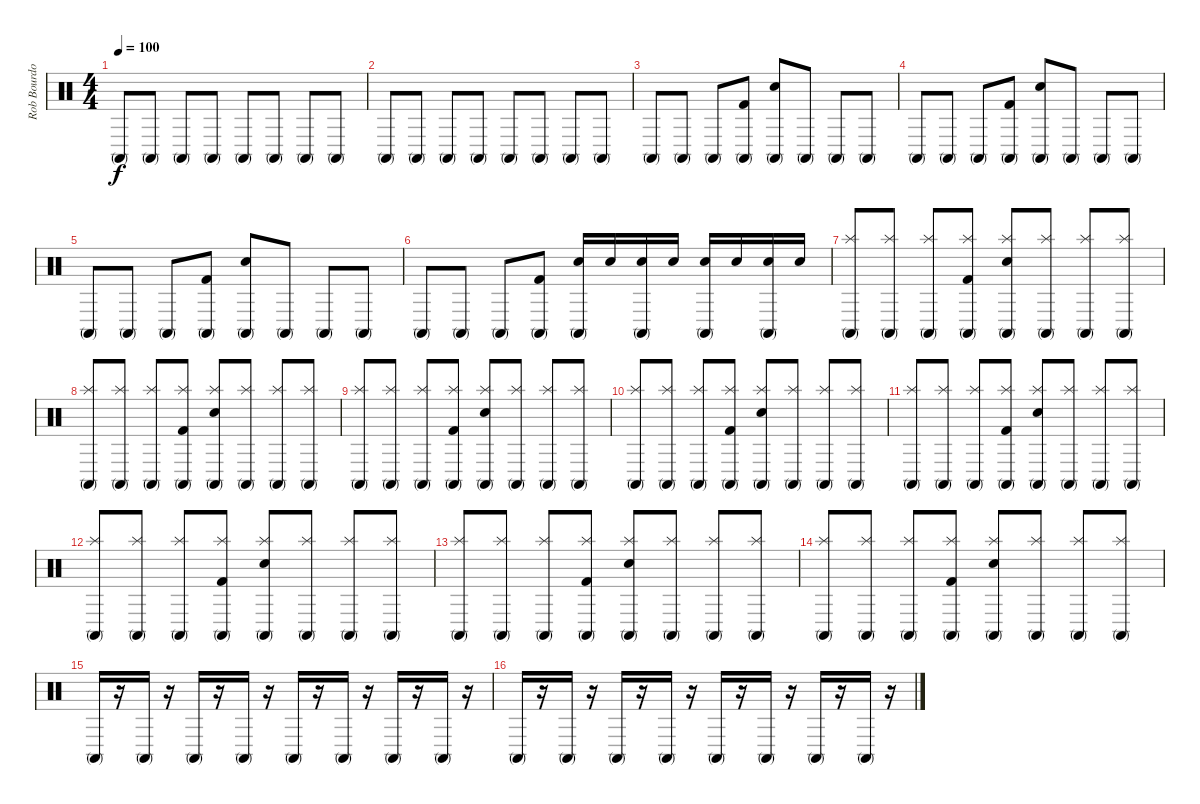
\track ("Rob Bourdon" "Rob Bourdo") {instrument percussion}
\staff {score}
\articulation defaults
\ts (4 4)
\tempo 100
\clef neutral
\ks c "Conga high (mute)".8{dy f} "Conga high (mute)".8 "Conga high (mute)".8 "Conga high (mute)".8 "Conga high (mute)".8 "Conga high (mute)".8 "Conga high (mute)".8 "Conga high (mute)".8
|
"Conga high (mute)".8 "Conga high (mute)".8 "Conga high (mute)".8 "Conga high (mute)".8 "Conga high (mute)".8 "Conga high (mute)".8 "Conga high (mute)".8 "Conga high (mute)".8 |
"Conga high (mute)".8 "Conga high (mute)".8 "Conga high (mute)".8 ("Conga high (mute)" "Kick (hit) 2").8 ("Conga high (mute)" "Electric Snare (hit)").8 "Conga high (mute)".8 "Conga high (mute)".8 "Conga high (mute)".8 |
"Conga high (mute)".8 "Conga high (mute)".8 "Conga high (mute)".8 ("Conga high (mute)" "Kick (hit) 2").8 ("Conga high (mute)" "Electric Snare (hit)").8 "Conga high (mute)".8 "Conga high (mute)".8 "Conga high (mute)".8 |
"Conga high (mute)".8 "Conga high (mute)".8 "Conga high (mute)".8 ("Conga high (mute)" "Kick (hit) 2").8 ("Conga high (mute)" "Electric Snare (hit)").8 "Conga high (mute)".8 "Conga high (mute)".8 "Conga high (mute)".8 |
"Conga high (mute)".8 "Conga high (mute)".8 "Conga high (mute)".8 ("Conga high (mute)" "Kick (hit) 2").8 ("Conga high (mute)" "Electric Snare (hit)").16 "Electric Snare (hit)".16 ("Conga high (mute)" "Electric Snare (hit)").16 "Electric Snare (hit)".16 ("Conga high (mute)" "Electric Snare (hit)").16 "Electric Snare (hit)".16 ("Conga high (mute)" "Electric Snare (hit)").16 "Electric Snare (hit)".16 |
("Conga high (mute)" "Splash (hit)").8 ("Conga high (mute)" "Splash (hit)").8 ("Conga high (mute)" "Splash (hit)").8 ("Conga high (mute)" "Splash (hit)" "Kick (hit) 2").8 ("Conga high (mute)" "Splash (hit)" "Electric Snare (hit)").8 ("Conga high (mute)" "Splash (hit)").8 ("Conga high (mute)" "Splash (hit)").8 ("Conga high (mute)" "Splash (hit)").8 |
("Conga high (mute)" "Splash (hit)").8 ("Conga high (mute)" "Splash (hit)").8 ("Conga high (mute)" "Splash (hit)").8 ("Conga high (mute)" "Splash (hit)" "Kick (hit) 2").8 ("Conga high (mute)" "Splash (hit)" "Electric Snare (hit)").8 ("Conga high (mute)" "Splash (hit)").8 ("Conga high (mute)" "Splash (hit)").8 ("Conga high (mute)" "Splash (hit)").8 |
("Conga high (mute)" "Splash (hit)").8 ("Conga high (mute)" "Splash (hit)").8 ("Conga high (mute)" "Splash (hit)").8 ("Conga high (mute)" "Splash (hit)" "Kick (hit) 2").8 ("Conga high (mute)" "Splash (hit)" "Electric Snare (hit)").8 ("Conga high (mute)" "Splash (hit)").8 ("Conga high (mute)" "Splash (hit)").8 ("Conga high (mute)" "Splash (hit)").8 |
("Conga high (mute)" "Splash (hit)").8 ("Conga high (mute)" "Splash (hit)").8 ("Conga high (mute)" "Splash (hit)").8 ("Conga high (mute)" "Splash (hit)" "Kick (hit) 2").8 ("Conga high (mute)" "Splash (hit)" "Electric Snare (hit)").8 ("Conga high (mute)" "Splash (hit)").8 ("Conga high (mute)" "Splash (hit)").8 ("Conga high (mute)" "Splash (hit)").8 |
("Conga high (mute)" "Splash (hit)").8 ("Conga high (mute)" "Splash (hit)").8 ("Conga high (mute)" "Splash (hit)").8 ("Conga high (mute)" "Splash (hit)" "Kick (hit) 2").8 ("Conga high (mute)" "Splash (hit)" "Electric Snare (hit)").8 ("Conga high (mute)" "Splash (hit)").8 ("Conga high (mute)" "Splash (hit)").8 ("Conga high (mute)" "Splash (hit)").8 |
("Conga high (mute)" "Splash (hit)").8 ("Conga high (mute)" "Splash (hit)").8 ("Conga high (mute)" "Splash (hit)").8 ("Conga high (mute)" "Splash (hit)" "Kick (hit) 2").8 ("Conga high (mute)" "Splash (hit)" "Electric Snare (hit)").8 ("Conga high (mute)" "Splash (hit)").8 ("Conga high (mute)" "Splash (hit)").8 ("Conga high (mute)" "Splash (hit)").8 |
("Conga high (mute)" "Splash (hit)").8 ("Conga high (mute)" "Splash (hit)").8 ("Conga high (mute)" "Splash (hit)").8 ("Conga high (mute)" "Splash (hit)" "Kick (hit) 2").8 ("Conga high (mute)" "Splash (hit)" "Electric Snare (hit)").8 ("Conga high (mute)" "Splash (hit)").8 ("Conga high (mute)" "Splash (hit)").8 ("Conga high (mute)" "Splash (hit)").8 |
("Conga high (mute)" "Splash (hit)").8 ("Conga high (mute)" "Splash (hit)").8 ("Conga high (mute)" "Splash (hit)").8 ("Conga high (mute)" "Splash (hit)" "Kick (hit) 2").8 ("Conga high (mute)" "Splash (hit)" "Electric Snare (hit)").8 ("Conga high (mute)" "Splash (hit)").8 ("Conga high (mute)" "Splash (hit)").8 ("Conga high (mute)" "Splash (hit)").8 |
"Conga high (mute)".16 r.16 "Conga high (mute)".16 r.16 "Conga high (mute)".16 r.16 "Conga high (mute)".16 r.16 "Conga high (mute)".16 r.16 "Conga high (mute)".16 r.16 "Conga high (mute)".16 r.16 "Conga high (mute)".16 r.16 |
"Conga high (mute)".16 r.16 "Conga high (mute)".16 r.16 "Conga high (mute)".16 r.16 "Conga high (mute)".16 r.16 "Conga high (mute)".16 r.16 "Conga high (mute)".16 r.16 "Conga high (mute)".16 r.16 "Conga high (mute)".16 r.16
